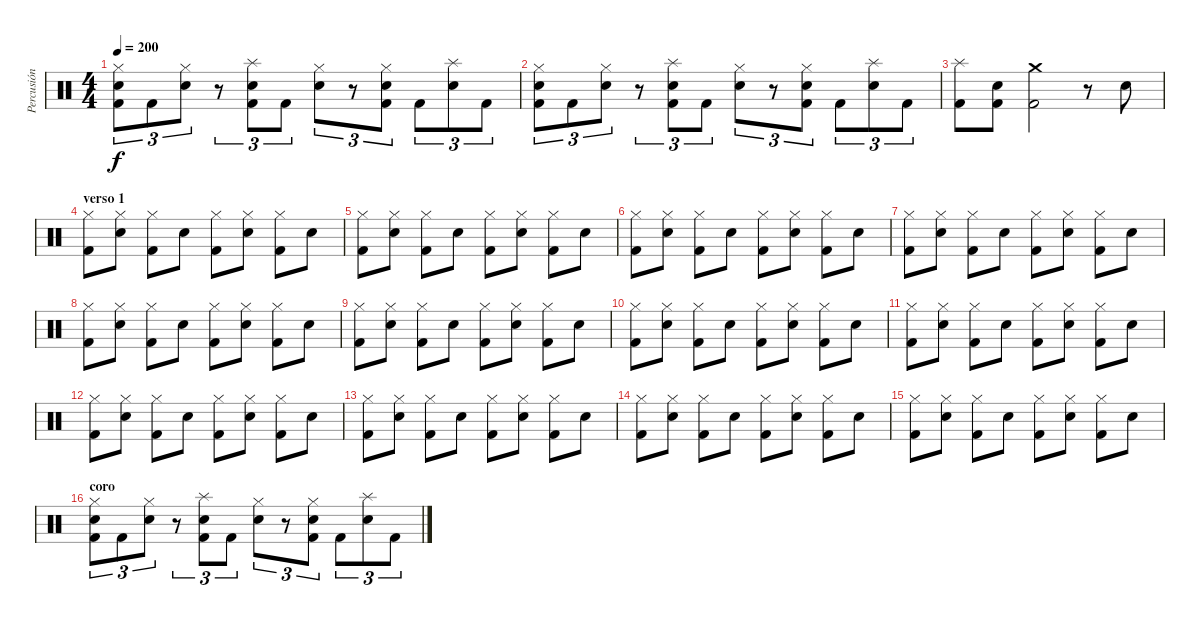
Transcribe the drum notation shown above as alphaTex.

\track ("Percusión" "Percusión") {instrument percussion}
\staff {score}
\articulation defaults
\ts (4 4)
\tempo 200
\clef neutral
\ks c
("Hi-Hat (closed)" "Snare (hit) 2" "Kick (hit) 2").8{tu (3 2) dy f} "Kick (hit) 2".8{tu (3 2)} ("Hi-Hat (closed)" "Snare (hit) 2").8{tu (3 2)} r.8{tu (3 2)} ("Splash (hit)" "Snare (hit) 2" "Kick (hit) 2").8{tu (3 2)} "Kick (hit) 2".8{tu (3 2)} ("Hi-Hat (closed)" "Snare (hit) 2").8{tu (3 2)} r.8{tu (3 2)} ("Hi-Hat (closed)" "Snare (hit) 2" "Kick (hit) 2").8{tu (3 2)} "Kick (hit) 2".8{tu (3 2)} ("Splash (hit)" "Snare (hit) 2").8{tu (3 2)} "Kick (hit) 2".8{tu (3 2)} |
("Hi-Hat (closed)" "Snare (hit) 2" "Kick (hit) 2").8{tu (3 2)} "Kick (hit) 2".8{tu (3 2)} ("Hi-Hat (closed)" "Snare (hit) 2").8{tu (3 2)} r.8{tu (3 2)} ("Splash (hit)" "Snare (hit) 2" "Kick (hit) 2").8{tu (3 2)} "Kick (hit) 2".8{tu (3 2)} ("Hi-Hat (closed)" "Snare (hit) 2").8{tu (3 2)} r.8{tu (3 2)} ("Hi-Hat (closed)" "Snare (hit) 2" "Kick (hit) 2").8{tu (3 2)} "Kick (hit) 2".8{tu (3 2)} ("Splash (hit)" "Snare (hit) 2").8{tu (3 2)} "Kick (hit) 2".8{tu (3 2)} |
("Splash (hit)" "Kick (hit) 2").8 ("Snare (hit)" "Kick (hit) 2").8 ("Crash medium (hit)" "Kick (hit) 2").2 r.8 "Snare (hit) 2".8 |
\section ("" "verso 1")
("Hi-Hat (closed)" "Kick (hit) 2").8 ("Hi-Hat (closed)" "Snare (hit) 2").8 ("Hi-Hat (closed)" "Kick (hit) 2").8 "Snare (hit) 2".8 ("Hi-Hat (closed)" "Kick (hit) 2").8 ("Hi-Hat (closed)" "Snare (hit) 2").8 ("Hi-Hat (closed)" "Kick (hit) 2").8 "Snare (hit) 2".8 |
("Hi-Hat (closed)" "Kick (hit) 2").8 ("Hi-Hat (closed)" "Snare (hit) 2").8 ("Hi-Hat (closed)" "Kick (hit) 2").8 "Snare (hit) 2".8 ("Hi-Hat (closed)" "Kick (hit) 2").8 ("Hi-Hat (closed)" "Snare (hit) 2").8 ("Hi-Hat (closed)" "Kick (hit) 2").8 "Snare (hit) 2".8 |
("Hi-Hat (closed)" "Kick (hit) 2").8 ("Hi-Hat (closed)" "Snare (hit) 2").8 ("Hi-Hat (closed)" "Kick (hit) 2").8 "Snare (hit) 2".8 ("Hi-Hat (closed)" "Kick (hit) 2").8 ("Hi-Hat (closed)" "Snare (hit) 2").8 ("Hi-Hat (closed)" "Kick (hit) 2").8 "Snare (hit) 2".8 |
("Hi-Hat (closed)" "Kick (hit) 2").8 ("Hi-Hat (closed)" "Snare (hit) 2").8 ("Hi-Hat (closed)" "Kick (hit) 2").8 "Snare (hit) 2".8 ("Hi-Hat (closed)" "Kick (hit) 2").8 ("Hi-Hat (closed)" "Snare (hit) 2").8 ("Hi-Hat (closed)" "Kick (hit) 2").8 "Snare (hit) 2".8 |
("Hi-Hat (closed)" "Kick (hit) 2").8 ("Hi-Hat (closed)" "Snare (hit) 2").8 ("Hi-Hat (closed)" "Kick (hit) 2").8 "Snare (hit) 2".8 ("Hi-Hat (closed)" "Kick (hit) 2").8 ("Hi-Hat (closed)" "Snare (hit) 2").8 ("Hi-Hat (closed)" "Kick (hit) 2").8 "Snare (hit) 2".8 |
("Hi-Hat (closed)" "Kick (hit) 2").8 ("Hi-Hat (closed)" "Snare (hit) 2").8 ("Hi-Hat (closed)" "Kick (hit) 2").8 "Snare (hit) 2".8 ("Hi-Hat (closed)" "Kick (hit) 2").8 ("Hi-Hat (closed)" "Snare (hit) 2").8 ("Hi-Hat (closed)" "Kick (hit) 2").8 "Snare (hit) 2".8 |
("Hi-Hat (closed)" "Kick (hit) 2").8 ("Hi-Hat (closed)" "Snare (hit) 2").8 ("Hi-Hat (closed)" "Kick (hit) 2").8 "Snare (hit) 2".8 ("Hi-Hat (closed)" "Kick (hit) 2").8 ("Hi-Hat (closed)" "Snare (hit) 2").8 ("Hi-Hat (closed)" "Kick (hit) 2").8 "Snare (hit) 2".8 |
("Hi-Hat (closed)" "Kick (hit) 2").8 ("Hi-Hat (closed)" "Snare (hit) 2").8 ("Hi-Hat (closed)" "Kick (hit) 2").8 "Snare (hit) 2".8 ("Hi-Hat (closed)" "Kick (hit) 2").8 ("Hi-Hat (closed)" "Snare (hit) 2").8 ("Hi-Hat (closed)" "Kick (hit) 2").8 "Snare (hit) 2".8 |
("Hi-Hat (closed)" "Kick (hit) 2").8 ("Hi-Hat (closed)" "Snare (hit) 2").8 ("Hi-Hat (closed)" "Kick (hit) 2").8 "Snare (hit) 2".8 ("Hi-Hat (closed)" "Kick (hit) 2").8 ("Hi-Hat (closed)" "Snare (hit) 2").8 ("Hi-Hat (closed)" "Kick (hit) 2").8 "Snare (hit) 2".8 |
("Hi-Hat (closed)" "Kick (hit) 2").8 ("Hi-Hat (closed)" "Snare (hit) 2").8 ("Hi-Hat (closed)" "Kick (hit) 2").8 "Snare (hit) 2".8 ("Hi-Hat (closed)" "Kick (hit) 2").8 ("Hi-Hat (closed)" "Snare (hit) 2").8 ("Hi-Hat (closed)" "Kick (hit) 2").8 "Snare (hit) 2".8 |
("Hi-Hat (closed)" "Kick (hit) 2").8 ("Hi-Hat (closed)" "Snare (hit) 2").8 ("Hi-Hat (closed)" "Kick (hit) 2").8 "Snare (hit) 2".8 ("Hi-Hat (closed)" "Kick (hit) 2").8 ("Hi-Hat (closed)" "Snare (hit) 2").8 ("Hi-Hat (closed)" "Kick (hit) 2").8 "Snare (hit) 2".8 |
("Hi-Hat (closed)" "Kick (hit) 2").8 ("Hi-Hat (closed)" "Snare (hit) 2").8 ("Hi-Hat (closed)" "Kick (hit) 2").8 "Snare (hit) 2".8 ("Hi-Hat (closed)" "Kick (hit) 2").8 ("Hi-Hat (closed)" "Snare (hit) 2").8 ("Hi-Hat (closed)" "Kick (hit) 2").8 "Snare (hit) 2".8 |
\section ("" "coro")
("Hi-Hat (closed)" "Snare (hit) 2" "Kick (hit) 2").8{tu (3 2)} "Kick (hit) 2".8{tu (3 2)} ("Hi-Hat (closed)" "Snare (hit) 2").8{tu (3 2)} r.8{tu (3 2)} ("Splash (hit)" "Snare (hit) 2" "Kick (hit) 2").8{tu (3 2)} "Kick (hit) 2".8{tu (3 2)} ("Hi-Hat (closed)" "Snare (hit) 2").8{tu (3 2)} r.8{tu (3 2)} ("Hi-Hat (closed)" "Snare (hit) 2" "Kick (hit) 2").8{tu (3 2)} "Kick (hit) 2".8{tu (3 2)} ("Splash (hit)" "Snare (hit) 2").8{tu (3 2)} "Kick (hit) 2".8{tu (3 2)}
